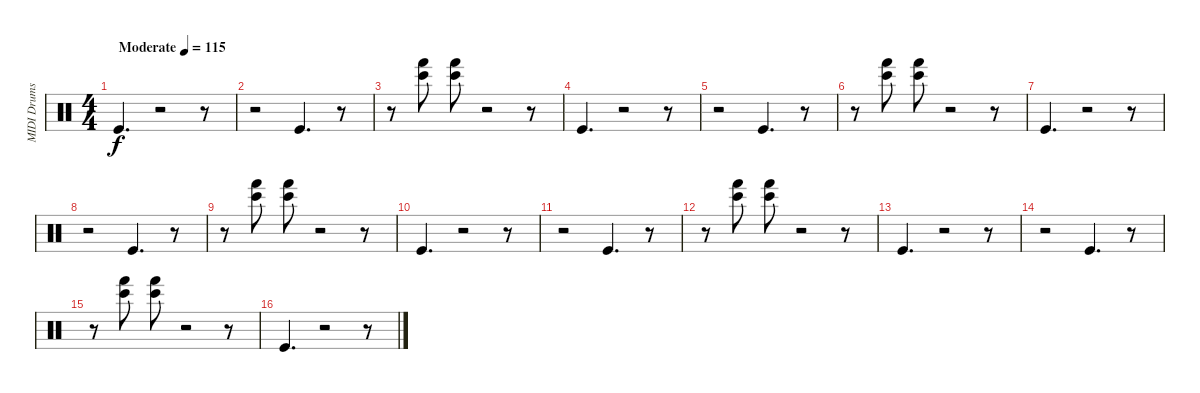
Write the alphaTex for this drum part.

\track ("MIDI Drums" "MIDI Drums") {instrument percussion}
\staff {score}
\articulation defaults
\ts (4 4)
\tempo (115 "Moderate")
\clef neutral
\ks c "Kick (hit)".4{d dy f}
r.2 r.8 |
r.2 "Kick (hit)".4{d} r.8 |
r.8 ("Hand (hit)" "Bongo High (hit)").8 ("Hand (hit)" "Bongo High (hit)").8 r.2 r.8 |
"Kick (hit)".4{d} r.2 r.8 |
r.2 "Kick (hit)".4{d} r.8 |
r.8 ("Bongo High (hit)" "Hand (hit)").8 ("Hand (hit)" "Bongo High (hit)").8 r.2 r.8 |
"Kick (hit)".4{d} r.2 r.8 |
r.2 "Kick (hit)".4{d} r.8 |
r.8 ("Bongo High (hit)" "Hand (hit)").8 ("Bongo High (hit)" "Hand (hit)").8 r.2 r.8 |
"Kick (hit)".4{d} r.2 r.8 |
r.2 "Kick (hit)".4{d} r.8 |
r.8 ("Bongo High (hit)" "Hand (hit)").8 ("Hand (hit)" "Bongo High (hit)").8 r.2 r.8 |
"Kick (hit)".4{d} r.2 r.8 |
r.2 "Kick (hit)".4{d} r.8 |
r.8 ("Bongo High (hit)" "Hand (hit)").8 ("Hand (hit)" "Bongo High (hit)").8 r.2 r.8 |
"Kick (hit)".4{d} r.2 r.8
